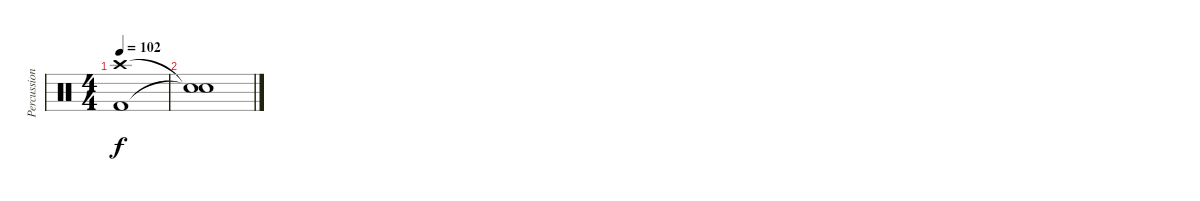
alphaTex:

\track ("Percussion" "Percussion") {instrument percussion}
\staff {score}
\articulation defaults
\ts (4 4)
\tempo 102
\clef neutral
\ks c
("Kick (hit) 2" "Crash high (hit)").1{dy f} |
("Snare (hit)"{t} "Snare (hit)"{t}).1
